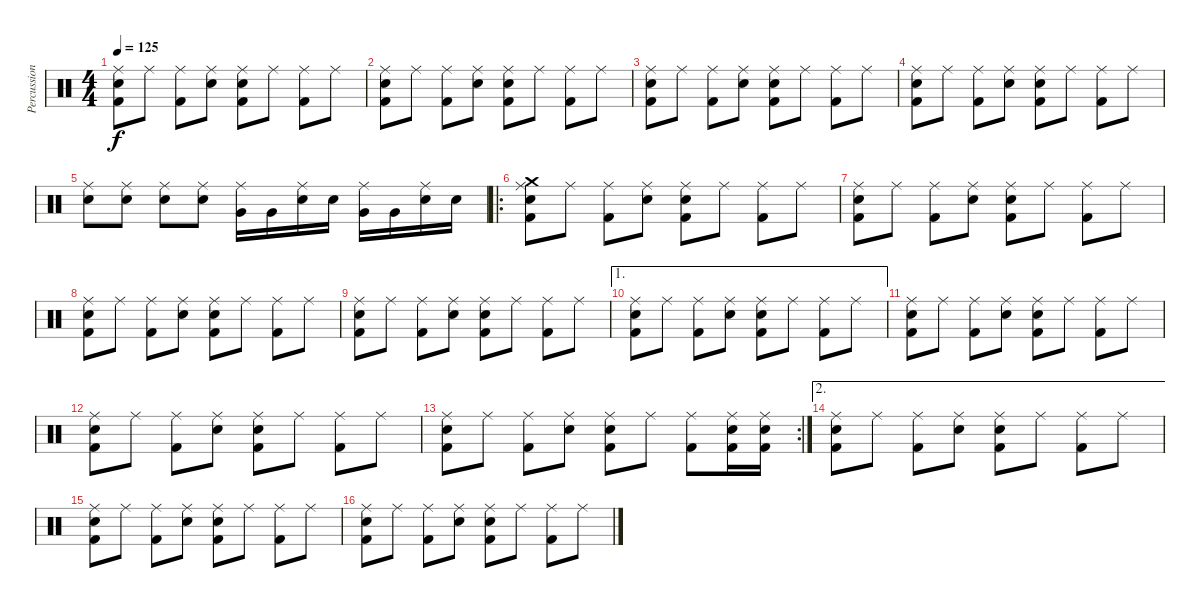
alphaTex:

\track ("Percussions" "Percussion") {instrument percussion}
\staff {score}
\articulation defaults
\ts (4 4)
\tempo 125
\clef neutral
\ks c
("Snare (hit) 2" "Kick (hit) 2" "Ride (middle)").8{dy f} "Ride (middle)".8 ("Kick (hit) 2" "Ride (middle)").8 ("Snare (hit) 2" "Ride (middle)").8 ("Snare (hit) 2" "Kick (hit) 2" "Ride (middle)").8 "Ride (middle)".8 ("Kick (hit) 2" "Ride (middle)").8 "Ride (middle)".8 |
("Snare (hit) 2" "Kick (hit) 2" "Ride (middle)").8 "Ride (middle)".8 ("Kick (hit) 2" "Ride (middle)").8 ("Snare (hit) 2" "Ride (middle)").8 ("Snare (hit) 2" "Kick (hit) 2" "Ride (middle)").8 "Ride (middle)".8 ("Kick (hit) 2" "Ride (middle)").8 "Ride (middle)".8 |
("Snare (hit) 2" "Kick (hit) 2" "Ride (middle)").8 "Ride (middle)".8 ("Kick (hit) 2" "Ride (middle)").8 ("Snare (hit) 2" "Ride (middle)").8 ("Snare (hit) 2" "Kick (hit) 2" "Ride (middle)").8 "Ride (middle)".8 ("Kick (hit) 2" "Ride (middle)").8 "Ride (middle)".8 |
("Snare (hit) 2" "Kick (hit) 2" "Ride (middle)").8 "Ride (middle)".8 ("Kick (hit) 2" "Ride (middle)").8 ("Snare (hit) 2" "Ride (middle)").8 ("Snare (hit) 2" "Kick (hit) 2" "Ride (middle)").8 "Ride (middle)".8 ("Kick (hit) 2" "Ride (middle)").8 "Ride (middle)".8 |
("Electric Snare (hit)" "Ride (middle)").8 ("Electric Snare (hit)" "Ride (middle)").8 ("Electric Snare (hit)" "Ride (middle)").8 ("Electric Snare (hit)" "Ride (middle)").8 ("Very Low Tom (hit)" "Ride (middle)").16 "Very Low Tom (hit)".16 ("Electric Snare (hit)" "Ride (middle)").16 "Electric Snare (hit)".16 ("Very Low Tom (hit)" "Ride (middle)").16 "Very Low Tom (hit)".16 ("Electric Snare (hit)" "Ride (middle)").16 "Electric Snare (hit)".16 |
\ro
("Crash medium (hit)" "Snare (hit) 2" "Kick (hit) 2" "Ride (middle)").8 "Ride (middle)".8 ("Kick (hit) 2" "Ride (middle)").8 ("Snare (hit) 2" "Ride (middle)").8 ("Snare (hit) 2" "Kick (hit) 2" "Ride (middle)").8 "Ride (middle)".8 ("Kick (hit) 2" "Ride (middle)").8 "Ride (middle)".8 |
("Snare (hit) 2" "Kick (hit) 2" "Ride (middle)").8 "Ride (middle)".8 ("Kick (hit) 2" "Ride (middle)").8 ("Snare (hit) 2" "Ride (middle)").8 ("Snare (hit) 2" "Kick (hit) 2" "Ride (middle)").8 "Ride (middle)".8 ("Kick (hit) 2" "Ride (middle)").8 "Ride (middle)".8 |
("Snare (hit) 2" "Kick (hit) 2" "Ride (middle)").8 "Ride (middle)".8 ("Kick (hit) 2" "Ride (middle)").8 ("Snare (hit) 2" "Ride (middle)").8 ("Snare (hit) 2" "Kick (hit) 2" "Ride (middle)").8 "Ride (middle)".8 ("Kick (hit) 2" "Ride (middle)").8 "Ride (middle)".8 |
("Snare (hit) 2" "Kick (hit) 2" "Ride (middle)").8 "Ride (middle)".8 ("Kick (hit) 2" "Ride (middle)").8 ("Snare (hit) 2" "Ride (middle)").8 ("Snare (hit) 2" "Kick (hit) 2" "Ride (middle)").8 "Ride (middle)".8 ("Kick (hit) 2" "Ride (middle)").8 "Ride (middle)".8 |
\ae 1
("Snare (hit) 2" "Kick (hit) 2" "Ride (middle)").8 "Ride (middle)".8 ("Kick (hit) 2" "Ride (middle)").8 ("Snare (hit) 2" "Ride (middle)").8 ("Snare (hit) 2" "Kick (hit) 2" "Ride (middle)").8 "Ride (middle)".8 ("Kick (hit) 2" "Ride (middle)").8 "Ride (middle)".8 |
("Snare (hit) 2" "Kick (hit) 2" "Ride (middle)").8 "Ride (middle)".8 ("Kick (hit) 2" "Ride (middle)").8 ("Snare (hit) 2" "Ride (middle)").8 ("Snare (hit) 2" "Kick (hit) 2" "Ride (middle)").8 "Ride (middle)".8 ("Kick (hit) 2" "Ride (middle)").8 "Ride (middle)".8 |
("Snare (hit) 2" "Kick (hit) 2" "Ride (middle)").8 "Ride (middle)".8 ("Kick (hit) 2" "Ride (middle)").8 ("Snare (hit) 2" "Ride (middle)").8 ("Snare (hit) 2" "Kick (hit) 2" "Ride (middle)").8 "Ride (middle)".8 ("Kick (hit) 2" "Ride (middle)").8 "Ride (middle)".8 |
\rc 2
("Snare (hit) 2" "Kick (hit) 2" "Ride (middle)").8 "Ride (middle)".8 ("Kick (hit) 2" "Ride (middle)").8 ("Snare (hit) 2" "Ride (middle)").8 ("Snare (hit) 2" "Kick (hit) 2" "Ride (middle)").8 "Ride (middle)".8 ("Kick (hit) 2" "Ride (middle)").8 ("Snare (hit) 2" "Kick (hit) 2" "Ride (middle)").16 ("Snare (hit) 2" "Kick (hit) 2" "Ride (middle)").16 |
\ae 2
("Snare (hit) 2" "Kick (hit) 2" "Ride (middle)").8 "Ride (middle)".8 ("Kick (hit) 2" "Ride (middle)").8 ("Snare (hit) 2" "Ride (middle)").8 ("Snare (hit) 2" "Kick (hit) 2" "Ride (middle)").8 "Ride (middle)".8 ("Kick (hit) 2" "Ride (middle)").8 "Ride (middle)".8 |
("Snare (hit) 2" "Kick (hit) 2" "Ride (middle)").8 "Ride (middle)".8 ("Kick (hit) 2" "Ride (middle)").8 ("Snare (hit) 2" "Ride (middle)").8 ("Snare (hit) 2" "Kick (hit) 2" "Ride (middle)").8 "Ride (middle)".8 ("Kick (hit) 2" "Ride (middle)").8 "Ride (middle)".8 |
("Snare (hit) 2" "Kick (hit) 2" "Ride (middle)").8 "Ride (middle)".8 ("Kick (hit) 2" "Ride (middle)").8 ("Snare (hit) 2" "Ride (middle)").8 ("Snare (hit) 2" "Kick (hit) 2" "Ride (middle)").8 "Ride (middle)".8 ("Kick (hit) 2" "Ride (middle)").8 "Ride (middle)".8
